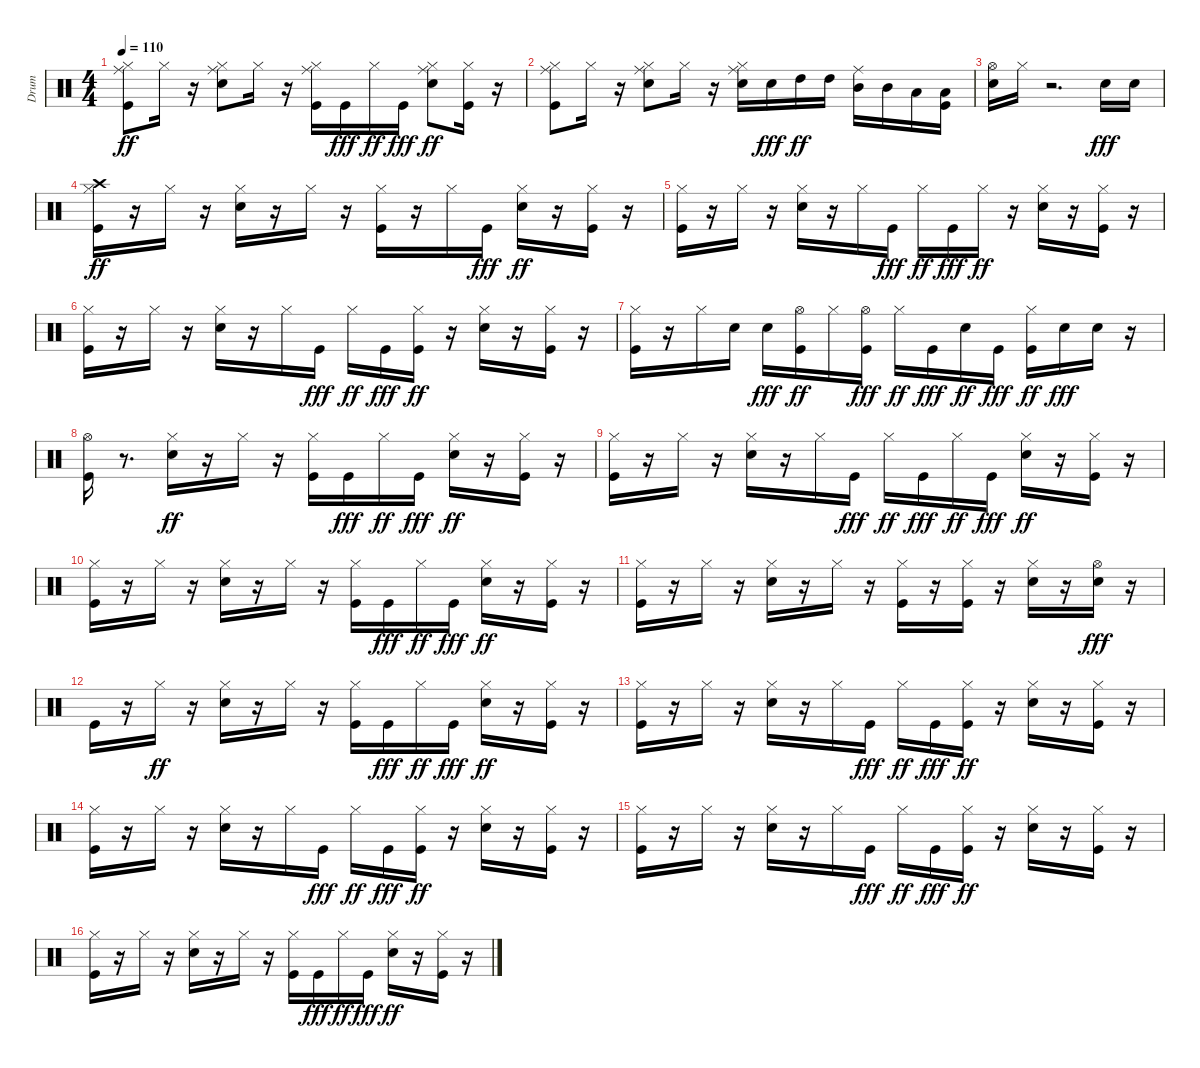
\track ("Drum" "Drum") {instrument percussion}
\staff {score}
\articulation defaults
\ts (4 4)
\tempo 110
\clef neutral
\ks c
("Kick (hit)" "Hi-Hat (closed)" "Ride (middle)").8{dy ff} "Hi-Hat (closed)".16 r.16 ("Electric Snare (hit)" "Hi-Hat (closed)" "Ride (middle)").8 "Hi-Hat (closed)".16 r.16 ("Kick (hit)" "Hi-Hat (closed)" "Ride (middle)").16 "Kick (hit)".16{dy fff} "Hi-Hat (closed)".16{dy ff} "Kick (hit)".16{dy fff} ("Electric Snare (hit)" "Hi-Hat (closed)" "Ride (middle)").8{dy ff} ("Kick (hit)" "Hi-Hat (closed)").16 r.16 |
("Kick (hit)" "Hi-Hat (closed)" "Ride (middle)").8 "Hi-Hat (closed)".16 r.16 ("Electric Snare (hit)" "Hi-Hat (closed)" "Ride (middle)").8 "Hi-Hat (closed)".16 r.16 ("Electric Snare (hit)" "Hi-Hat (closed)" "Ride (middle)").16 "Electric Snare (hit)".16{dy fff} "High Tom (hit)".16{dy ff} "High Tom (hit)".16 ("Mid Tom (hit)" "Ride (middle)").16 "Mid Tom (hit)".16 "Low Tom (hit)".16 ("Low Tom (hit)" "Kick (hit)").16 |
("Electric Snare (hit)" "Hi-Hat (open)").16 "Hi-Hat (closed)".16 r.2{d} "Electric Snare (hit)".16{dy fff} "Electric Snare (hit)".16 |
("Crash high (hit)" "Kick (hit)" "Hi-Hat (closed)").16{dy ff} r.16 "Hi-Hat (closed)".16 r.16 ("Electric Snare (hit)" "Hi-Hat (closed)").16 r.16 "Hi-Hat (closed)".16 r.16 ("Kick (hit)" "Hi-Hat (closed)").16 r.16 "Hi-Hat (closed)".16 "Kick (hit)".16{dy fff} ("Electric Snare (hit)" "Hi-Hat (closed)").16{dy ff} r.16 ("Kick (hit)" "Hi-Hat (closed)").16 r.16 |
("Kick (hit)" "Hi-Hat (closed)").16 r.16 "Hi-Hat (closed)".16 r.16 ("Electric Snare (hit)" "Hi-Hat (closed)").16 r.16 "Hi-Hat (closed)".16 "Kick (hit)".16{dy fff} "Hi-Hat (closed)".16{dy ff} "Kick (hit)".16{dy fff} "Hi-Hat (closed)".16{dy ff} r.16 ("Electric Snare (hit)" "Hi-Hat (closed)").16 r.16 ("Kick (hit)" "Hi-Hat (closed)").16 r.16 |
("Kick (hit)" "Hi-Hat (closed)").16 r.16 "Hi-Hat (closed)".16 r.16 ("Electric Snare (hit)" "Hi-Hat (closed)").16 r.16 "Hi-Hat (closed)".16 "Kick (hit)".16{dy fff} "Hi-Hat (closed)".16{dy ff} "Kick (hit)".16{dy fff} ("Kick (hit)" "Hi-Hat (closed)").16{dy ff} r.16 ("Electric Snare (hit)" "Hi-Hat (closed)").16 r.16 ("Kick (hit)" "Hi-Hat (closed)").16 r.16 |
("Kick (hit)" "Hi-Hat (closed)").16 r.16 "Hi-Hat (closed)".16 "Electric Snare (hit)".16 "Electric Snare (hit)".16{dy fff} ("Hi-Hat (open)" "Kick (hit)").16{dy ff} "Hi-Hat (closed)".16 ("Hi-Hat (open)" "Kick (hit)").16{dy fff} "Hi-Hat (closed)".16{dy ff} "Kick (hit)".16{dy fff} "Electric Snare (hit)".16{dy ff} "Kick (hit)".16{dy fff} ("Kick (hit)" "Hi-Hat (closed)").16{dy ff} "Electric Snare (hit)".16{dy fff} "Electric Snare (hit)".16 r.16 |
("Hi-Hat (open)" "Kick (hit)").16 r.8{d} ("Electric Snare (hit)" "Hi-Hat (closed)").16{dy ff} r.16 "Hi-Hat (closed)".16 r.16 ("Kick (hit)" "Hi-Hat (closed)").16 "Kick (hit)".16{dy fff} "Hi-Hat (closed)".16{dy ff} "Kick (hit)".16{dy fff} ("Electric Snare (hit)" "Hi-Hat (closed)").16{dy ff} r.16 ("Kick (hit)" "Hi-Hat (closed)").16 r.16 |
("Kick (hit)" "Hi-Hat (closed)").16 r.16 "Hi-Hat (closed)".16 r.16 ("Electric Snare (hit)" "Hi-Hat (closed)").16 r.16 "Hi-Hat (closed)".16 "Kick (hit)".16{dy fff} "Hi-Hat (closed)".16{dy ff} "Kick (hit)".16{dy fff} "Hi-Hat (closed)".16{dy ff} "Kick (hit)".16{dy fff} ("Electric Snare (hit)" "Hi-Hat (closed)").16{dy ff} r.16 ("Kick (hit)" "Hi-Hat (closed)").16 r.16 |
("Kick (hit)" "Hi-Hat (closed)").16 r.16 "Hi-Hat (closed)".16 r.16 ("Electric Snare (hit)" "Hi-Hat (closed)").16 r.16 "Hi-Hat (closed)".16 r.16 ("Kick (hit)" "Hi-Hat (closed)").16 "Kick (hit)".16{dy fff} "Hi-Hat (closed)".16{dy ff} "Kick (hit)".16{dy fff} ("Electric Snare (hit)" "Hi-Hat (closed)").16{dy ff} r.16 ("Kick (hit)" "Hi-Hat (closed)").16 r.16 |
("Kick (hit)" "Hi-Hat (closed)").16 r.16 "Hi-Hat (closed)".16 r.16 ("Electric Snare (hit)" "Hi-Hat (closed)").16 r.16 "Hi-Hat (closed)".16 r.16 ("Kick (hit)" "Hi-Hat (closed)").16 r.16 ("Kick (hit)" "Hi-Hat (closed)").16 r.16 ("Electric Snare (hit)" "Hi-Hat (closed)").16 r.16 ("Hi-Hat (open)" "Electric Snare (hit)").16{dy fff} r.16 |
"Kick (hit)".16 r.16 "Hi-Hat (closed)".16{dy ff} r.16 ("Electric Snare (hit)" "Hi-Hat (closed)").16 r.16 "Hi-Hat (closed)".16 r.16 ("Kick (hit)" "Hi-Hat (closed)").16 "Kick (hit)".16{dy fff} "Hi-Hat (closed)".16{dy ff} "Kick (hit)".16{dy fff} ("Electric Snare (hit)" "Hi-Hat (closed)").16{dy ff} r.16 ("Kick (hit)" "Hi-Hat (closed)").16 r.16 |
("Kick (hit)" "Hi-Hat (closed)").16 r.16 "Hi-Hat (closed)".16 r.16 ("Electric Snare (hit)" "Hi-Hat (closed)").16 r.16 "Hi-Hat (closed)".16 "Kick (hit)".16{dy fff} "Hi-Hat (closed)".16{dy ff} "Kick (hit)".16{dy fff} ("Kick (hit)" "Hi-Hat (closed)").16{dy ff} r.16 ("Electric Snare (hit)" "Hi-Hat (closed)").16 r.16 ("Kick (hit)" "Hi-Hat (closed)").16 r.16 |
("Kick (hit)" "Hi-Hat (closed)").16 r.16 "Hi-Hat (closed)".16 r.16 ("Electric Snare (hit)" "Hi-Hat (closed)").16 r.16 "Hi-Hat (closed)".16 "Kick (hit)".16{dy fff} "Hi-Hat (closed)".16{dy ff} "Kick (hit)".16{dy fff} ("Kick (hit)" "Hi-Hat (closed)").16{dy ff} r.16 ("Electric Snare (hit)" "Hi-Hat (closed)").16 r.16 ("Kick (hit)" "Hi-Hat (closed)").16 r.16 |
("Kick (hit)" "Hi-Hat (closed)").16 r.16 "Hi-Hat (closed)".16 r.16 ("Electric Snare (hit)" "Hi-Hat (closed)").16 r.16 "Hi-Hat (closed)".16 "Kick (hit)".16{dy fff} "Hi-Hat (closed)".16{dy ff} "Kick (hit)".16{dy fff} ("Kick (hit)" "Hi-Hat (closed)").16{dy ff} r.16 ("Electric Snare (hit)" "Hi-Hat (closed)").16 r.16 ("Kick (hit)" "Hi-Hat (closed)").16 r.16 |
("Kick (hit)" "Hi-Hat (closed)").16 r.16 "Hi-Hat (closed)".16 r.16 ("Electric Snare (hit)" "Hi-Hat (closed)").16 r.16 "Hi-Hat (closed)".16 r.16 ("Kick (hit)" "Hi-Hat (closed)").16 "Kick (hit)".16{dy fff} "Hi-Hat (closed)".16{dy ff} "Kick (hit)".16{dy fff} ("Electric Snare (hit)" "Hi-Hat (closed)").16{dy ff} r.16 ("Kick (hit)" "Hi-Hat (closed)").16 r.16
